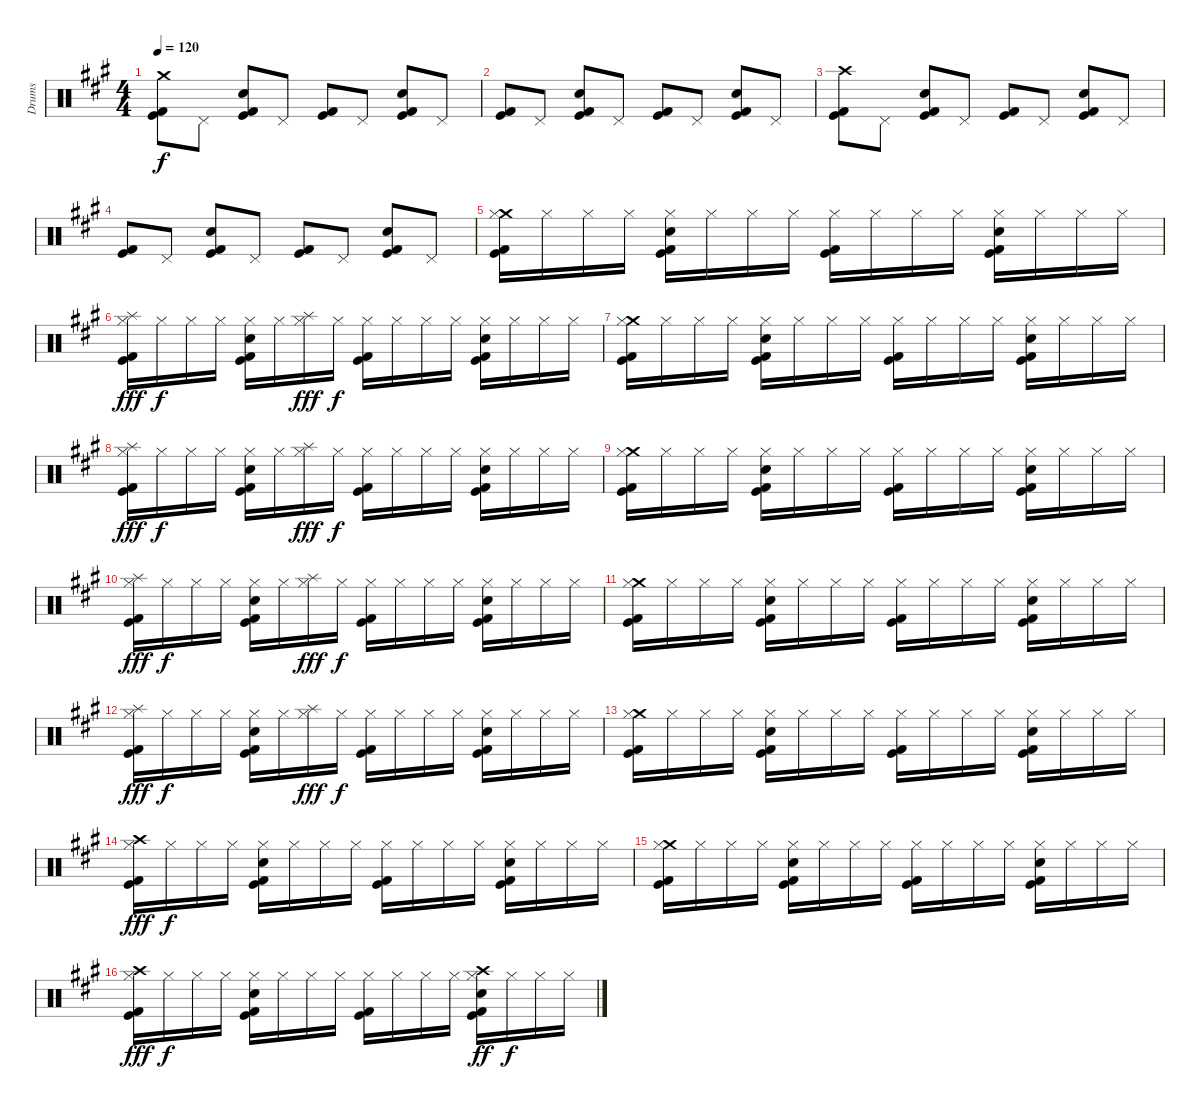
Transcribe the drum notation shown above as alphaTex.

\track ("Drums" "Drums") {instrument percussion}
\staff {score}
\articulation defaults
\ts (4 4)
\tempo 120
\clef neutral
\ks f#minor
("Crash medium (hit)" "Kick (hit)" "Kick (hit) 2").8{dy f} "Pedal Hi-Hat (hit)".8 ("Electric Snare (hit)" "Kick (hit)" "Kick (hit) 2").8 "Pedal Hi-Hat (hit)".8 ("Kick (hit)" "Kick (hit) 2").8 "Pedal Hi-Hat (hit)".8 ("Electric Snare (hit)" "Kick (hit)" "Kick (hit) 2").8 "Pedal Hi-Hat (hit)".8 |
("Kick (hit)" "Kick (hit) 2").8 "Pedal Hi-Hat (hit)".8 ("Electric Snare (hit)" "Kick (hit)" "Kick (hit) 2").8 "Pedal Hi-Hat (hit)".8 ("Kick (hit)" "Kick (hit) 2").8 "Pedal Hi-Hat (hit)".8 ("Electric Snare (hit)" "Kick (hit)" "Kick (hit) 2").8 "Pedal Hi-Hat (hit)".8 |
("Crash high (hit)" "Kick (hit)" "Kick (hit) 2").8 "Pedal Hi-Hat (hit)".8 ("Electric Snare (hit)" "Kick (hit)" "Kick (hit) 2").8 "Pedal Hi-Hat (hit)".8 ("Kick (hit)" "Kick (hit) 2").8 "Pedal Hi-Hat (hit)".8 ("Electric Snare (hit)" "Kick (hit)" "Kick (hit) 2").8 "Pedal Hi-Hat (hit)".8 |
("Kick (hit)" "Kick (hit) 2").8 "Pedal Hi-Hat (hit)".8 ("Electric Snare (hit)" "Kick (hit)" "Kick (hit) 2").8 "Pedal Hi-Hat (hit)".8 ("Kick (hit)" "Kick (hit) 2").8 "Pedal Hi-Hat (hit)".8 ("Electric Snare (hit)" "Kick (hit)" "Kick (hit) 2").8 "Pedal Hi-Hat (hit)".8 |
("Crash medium (hit)" "Hi-Hat (closed)" "Kick (hit)" "Kick (hit) 2").16 "Hi-Hat (closed)".16 "Hi-Hat (closed)".16 "Hi-Hat (closed)".16 ("Hi-Hat (closed)" "Electric Snare (hit)" "Kick (hit)" "Kick (hit) 2").16 "Hi-Hat (closed)".16 "Hi-Hat (closed)".16 "Hi-Hat (closed)".16 ("Hi-Hat (closed)" "Kick (hit)" "Kick (hit) 2").16 "Hi-Hat (closed)".16 "Hi-Hat (closed)".16 "Hi-Hat (closed)".16 ("Hi-Hat (closed)" "Electric Snare (hit)" "Kick (hit)" "Kick (hit) 2").16 "Hi-Hat (closed)".16 "Hi-Hat (closed)".16 "Hi-Hat (closed)".16 |
("Splash (hit)" "Hi-Hat (closed)" "Kick (hit)" "Kick (hit) 2").16{dy fff} "Hi-Hat (closed)".16{dy f} "Hi-Hat (closed)".16 "Hi-Hat (closed)".16 ("Hi-Hat (closed)" "Electric Snare (hit)" "Kick (hit)" "Kick (hit) 2").16 "Hi-Hat (closed)".16 ("Splash (hit)" "Hi-Hat (closed)").16{dy fff} "Hi-Hat (closed)".16{dy f} ("Hi-Hat (closed)" "Kick (hit)" "Kick (hit) 2").16 "Hi-Hat (closed)".16 "Hi-Hat (closed)".16 "Hi-Hat (closed)".16 ("Hi-Hat (closed)" "Electric Snare (hit)" "Kick (hit)" "Kick (hit) 2").16 "Hi-Hat (closed)".16 "Hi-Hat (closed)".16 "Hi-Hat (closed)".16 |
("Crash medium (hit)" "Hi-Hat (closed)" "Kick (hit)" "Kick (hit) 2").16 "Hi-Hat (closed)".16 "Hi-Hat (closed)".16 "Hi-Hat (closed)".16 ("Hi-Hat (closed)" "Electric Snare (hit)" "Kick (hit)" "Kick (hit) 2").16 "Hi-Hat (closed)".16 "Hi-Hat (closed)".16 "Hi-Hat (closed)".16 ("Hi-Hat (closed)" "Kick (hit)" "Kick (hit) 2").16 "Hi-Hat (closed)".16 "Hi-Hat (closed)".16 "Hi-Hat (closed)".16 ("Hi-Hat (closed)" "Electric Snare (hit)" "Kick (hit)" "Kick (hit) 2").16 "Hi-Hat (closed)".16 "Hi-Hat (closed)".16 "Hi-Hat (closed)".16 |
("Splash (hit)" "Hi-Hat (closed)" "Kick (hit)" "Kick (hit) 2").16{dy fff} "Hi-Hat (closed)".16{dy f} "Hi-Hat (closed)".16 "Hi-Hat (closed)".16 ("Hi-Hat (closed)" "Electric Snare (hit)" "Kick (hit)" "Kick (hit) 2").16 "Hi-Hat (closed)".16 ("Splash (hit)" "Hi-Hat (closed)").16{dy fff} "Hi-Hat (closed)".16{dy f} ("Hi-Hat (closed)" "Kick (hit)" "Kick (hit) 2").16 "Hi-Hat (closed)".16 "Hi-Hat (closed)".16 "Hi-Hat (closed)".16 ("Hi-Hat (closed)" "Electric Snare (hit)" "Kick (hit)" "Kick (hit) 2").16 "Hi-Hat (closed)".16 "Hi-Hat (closed)".16 "Hi-Hat (closed)".16 |
("Crash medium (hit)" "Hi-Hat (closed)" "Kick (hit)" "Kick (hit) 2").16 "Hi-Hat (closed)".16 "Hi-Hat (closed)".16 "Hi-Hat (closed)".16 ("Hi-Hat (closed)" "Electric Snare (hit)" "Kick (hit)" "Kick (hit) 2").16 "Hi-Hat (closed)".16 "Hi-Hat (closed)".16 "Hi-Hat (closed)".16 ("Hi-Hat (closed)" "Kick (hit)" "Kick (hit) 2").16 "Hi-Hat (closed)".16 "Hi-Hat (closed)".16 "Hi-Hat (closed)".16 ("Hi-Hat (closed)" "Electric Snare (hit)" "Kick (hit)" "Kick (hit) 2").16 "Hi-Hat (closed)".16 "Hi-Hat (closed)".16 "Hi-Hat (closed)".16 |
("Splash (hit)" "Hi-Hat (closed)" "Kick (hit)" "Kick (hit) 2").16{dy fff} "Hi-Hat (closed)".16{dy f} "Hi-Hat (closed)".16 "Hi-Hat (closed)".16 ("Hi-Hat (closed)" "Electric Snare (hit)" "Kick (hit)" "Kick (hit) 2").16 "Hi-Hat (closed)".16 ("Splash (hit)" "Hi-Hat (closed)").16{dy fff} "Hi-Hat (closed)".16{dy f} ("Hi-Hat (closed)" "Kick (hit)" "Kick (hit) 2").16 "Hi-Hat (closed)".16 "Hi-Hat (closed)".16 "Hi-Hat (closed)".16 ("Hi-Hat (closed)" "Electric Snare (hit)" "Kick (hit)" "Kick (hit) 2").16 "Hi-Hat (closed)".16 "Hi-Hat (closed)".16 "Hi-Hat (closed)".16 |
("Crash medium (hit)" "Hi-Hat (closed)" "Kick (hit)" "Kick (hit) 2").16 "Hi-Hat (closed)".16 "Hi-Hat (closed)".16 "Hi-Hat (closed)".16 ("Hi-Hat (closed)" "Electric Snare (hit)" "Kick (hit)" "Kick (hit) 2").16 "Hi-Hat (closed)".16 "Hi-Hat (closed)".16 "Hi-Hat (closed)".16 ("Hi-Hat (closed)" "Kick (hit)" "Kick (hit) 2").16 "Hi-Hat (closed)".16 "Hi-Hat (closed)".16 "Hi-Hat (closed)".16 ("Hi-Hat (closed)" "Electric Snare (hit)" "Kick (hit)" "Kick (hit) 2").16 "Hi-Hat (closed)".16 "Hi-Hat (closed)".16 "Hi-Hat (closed)".16 |
("Splash (hit)" "Hi-Hat (closed)" "Kick (hit)" "Kick (hit) 2").16{dy fff} "Hi-Hat (closed)".16{dy f} "Hi-Hat (closed)".16 "Hi-Hat (closed)".16 ("Hi-Hat (closed)" "Electric Snare (hit)" "Kick (hit)" "Kick (hit) 2").16 "Hi-Hat (closed)".16 ("Splash (hit)" "Hi-Hat (closed)").16{dy fff} "Hi-Hat (closed)".16{dy f} ("Hi-Hat (closed)" "Kick (hit)" "Kick (hit) 2").16 "Hi-Hat (closed)".16 "Hi-Hat (closed)".16 "Hi-Hat (closed)".16 ("Hi-Hat (closed)" "Electric Snare (hit)" "Kick (hit)" "Kick (hit) 2").16 "Hi-Hat (closed)".16 "Hi-Hat (closed)".16 "Hi-Hat (closed)".16 |
("Crash medium (hit)" "Hi-Hat (closed)" "Kick (hit)" "Kick (hit) 2").16 "Hi-Hat (closed)".16 "Hi-Hat (closed)".16 "Hi-Hat (closed)".16 ("Hi-Hat (closed)" "Electric Snare (hit)" "Kick (hit)" "Kick (hit) 2").16 "Hi-Hat (closed)".16 "Hi-Hat (closed)".16 "Hi-Hat (closed)".16 ("Hi-Hat (closed)" "Kick (hit)" "Kick (hit) 2").16 "Hi-Hat (closed)".16 "Hi-Hat (closed)".16 "Hi-Hat (closed)".16 ("Hi-Hat (closed)" "Electric Snare (hit)" "Kick (hit)" "Kick (hit) 2").16 "Hi-Hat (closed)".16 "Hi-Hat (closed)".16 "Hi-Hat (closed)".16 |
("Crash high (hit)" "Hi-Hat (closed)" "Kick (hit)" "Kick (hit) 2").16{dy fff} "Hi-Hat (closed)".16{dy f} "Hi-Hat (closed)".16 "Hi-Hat (closed)".16 ("Hi-Hat (closed)" "Electric Snare (hit)" "Kick (hit)" "Kick (hit) 2").16 "Hi-Hat (closed)".16 "Hi-Hat (closed)".16 "Hi-Hat (closed)".16 ("Hi-Hat (closed)" "Kick (hit)" "Kick (hit) 2").16 "Hi-Hat (closed)".16 "Hi-Hat (closed)".16 "Hi-Hat (closed)".16 ("Hi-Hat (closed)" "Electric Snare (hit)" "Kick (hit)" "Kick (hit) 2").16 "Hi-Hat (closed)".16 "Hi-Hat (closed)".16 "Hi-Hat (closed)".16 |
("Crash medium (hit)" "Hi-Hat (closed)" "Kick (hit)" "Kick (hit) 2").16 "Hi-Hat (closed)".16 "Hi-Hat (closed)".16 "Hi-Hat (closed)".16 ("Hi-Hat (closed)" "Electric Snare (hit)" "Kick (hit)" "Kick (hit) 2").16 "Hi-Hat (closed)".16 "Hi-Hat (closed)".16 "Hi-Hat (closed)".16 ("Hi-Hat (closed)" "Kick (hit)" "Kick (hit) 2").16 "Hi-Hat (closed)".16 "Hi-Hat (closed)".16 "Hi-Hat (closed)".16 ("Hi-Hat (closed)" "Electric Snare (hit)" "Kick (hit)" "Kick (hit) 2").16 "Hi-Hat (closed)".16 "Hi-Hat (closed)".16 "Hi-Hat (closed)".16 |
("Crash high (hit)" "Hi-Hat (closed)" "Kick (hit)" "Kick (hit) 2").16{dy fff} "Hi-Hat (closed)".16{dy f} "Hi-Hat (closed)".16 "Hi-Hat (closed)".16 ("Hi-Hat (closed)" "Electric Snare (hit)" "Kick (hit)" "Kick (hit) 2").16 "Hi-Hat (closed)".16 "Hi-Hat (closed)".16 "Hi-Hat (closed)".16 ("Hi-Hat (closed)" "Kick (hit)" "Kick (hit) 2").16 "Hi-Hat (closed)".16 "Hi-Hat (closed)".16 "Hi-Hat (closed)".16 ("Crash high (hit)" "Hi-Hat (closed)" "Electric Snare (hit)" "Kick (hit)" "Kick (hit) 2").16{dy ff} "Hi-Hat (closed)".16{dy f} "Hi-Hat (closed)".16 "Hi-Hat (closed)".16
